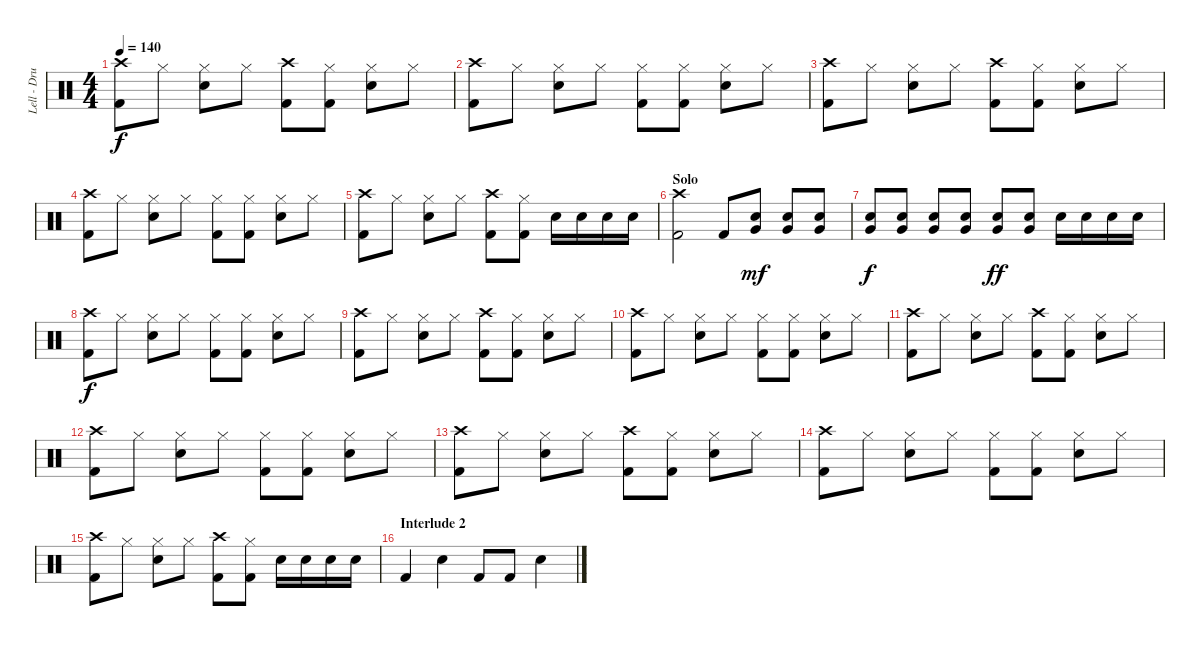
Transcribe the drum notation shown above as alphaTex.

\track ("Lell - Drums" "Lell - Dru") {instrument percussion}
\staff {score}
\articulation defaults
\ts (4 4)
\tempo 140
\clef neutral
\ks c
("Crash high (hit)" "Kick (hit) 2").8{dy f} "Hi-Hat (closed)".8 ("Hi-Hat (closed)" "Snare (hit) 2").8 "Hi-Hat (closed)".8 ("Crash high (hit)" "Kick (hit) 2").8 ("Hi-Hat (closed)" "Kick (hit) 2").8 ("Hi-Hat (closed)" "Snare (hit) 2").8 "Hi-Hat (closed)".8 |
("Crash high (hit)" "Kick (hit) 2").8 "Hi-Hat (closed)".8 ("Hi-Hat (closed)" "Snare (hit) 2").8 "Hi-Hat (closed)".8 ("Hi-Hat (closed)" "Kick (hit) 2").8 ("Hi-Hat (closed)" "Kick (hit) 2").8 ("Hi-Hat (closed)" "Snare (hit) 2").8 "Hi-Hat (closed)".8 |
("Crash high (hit)" "Kick (hit) 2").8 "Hi-Hat (closed)".8 ("Hi-Hat (closed)" "Snare (hit) 2").8 "Hi-Hat (closed)".8 ("Crash high (hit)" "Kick (hit) 2").8 ("Hi-Hat (closed)" "Kick (hit) 2").8 ("Hi-Hat (closed)" "Snare (hit) 2").8 "Hi-Hat (closed)".8 |
("Crash high (hit)" "Kick (hit) 2").8 "Hi-Hat (closed)".8 ("Hi-Hat (closed)" "Snare (hit) 2").8 "Hi-Hat (closed)".8 ("Hi-Hat (closed)" "Kick (hit) 2").8 ("Hi-Hat (closed)" "Kick (hit) 2").8 ("Hi-Hat (closed)" "Snare (hit) 2").8 "Hi-Hat (closed)".8 |
("Crash high (hit)" "Kick (hit) 2").8 "Hi-Hat (closed)".8 ("Hi-Hat (closed)" "Snare (hit) 2").8 "Hi-Hat (closed)".8 ("Crash high (hit)" "Kick (hit) 2").8 ("Hi-Hat (closed)" "Kick (hit) 2").8 "Snare (hit) 2".16 "Snare (hit) 2".16 "Snare (hit) 2".16 "Snare (hit) 2".16 |
\section ("" "Solo")
("Crash high (hit)" "Kick (hit) 2").2 "Kick (hit) 2".8 ("Very Low Tom (hit)" "Snare (hit) 2").8{dy mf} ("Very Low Tom (hit)" "Snare (hit) 2").8 ("Very Low Tom (hit)" "Snare (hit) 2").8 |
("Very Low Tom (hit)" "Snare (hit) 2").8{dy f} ("Very Low Tom (hit)" "Snare (hit) 2").8 ("Very Low Tom (hit)" "Snare (hit) 2").8 ("Very Low Tom (hit)" "Snare (hit) 2").8 ("Very Low Tom (hit)" "Snare (hit) 2").8{dy ff} ("Very Low Tom (hit)" "Snare (hit) 2").8 "Snare (hit) 2".16 "Snare (hit) 2".16 "Snare (hit) 2".16 "Snare (hit) 2".16 |
("Crash high (hit)" "Kick (hit) 2").8{dy f} "Hi-Hat (closed)".8 ("Hi-Hat (closed)" "Snare (hit) 2").8 "Hi-Hat (closed)".8 ("Hi-Hat (closed)" "Kick (hit) 2").8 ("Hi-Hat (closed)" "Kick (hit) 2").8 ("Hi-Hat (closed)" "Snare (hit) 2").8 "Hi-Hat (closed)".8 |
("Crash high (hit)" "Kick (hit) 2").8 "Hi-Hat (closed)".8 ("Hi-Hat (closed)" "Snare (hit) 2").8 "Hi-Hat (closed)".8 ("Crash high (hit)" "Kick (hit) 2").8 ("Hi-Hat (closed)" "Kick (hit) 2").8 ("Hi-Hat (closed)" "Snare (hit) 2").8 "Hi-Hat (closed)".8 |
("Crash high (hit)" "Kick (hit) 2").8 "Hi-Hat (closed)".8 ("Hi-Hat (closed)" "Snare (hit) 2").8 "Hi-Hat (closed)".8 ("Hi-Hat (closed)" "Kick (hit) 2").8 ("Hi-Hat (closed)" "Kick (hit) 2").8 ("Hi-Hat (closed)" "Snare (hit) 2").8 "Hi-Hat (closed)".8 |
("Crash high (hit)" "Kick (hit) 2").8 "Hi-Hat (closed)".8 ("Hi-Hat (closed)" "Snare (hit) 2").8 "Hi-Hat (closed)".8 ("Crash high (hit)" "Kick (hit) 2").8 ("Hi-Hat (closed)" "Kick (hit) 2").8 ("Hi-Hat (closed)" "Snare (hit) 2").8 "Hi-Hat (closed)".8 |
("Crash high (hit)" "Kick (hit) 2").8 "Hi-Hat (closed)".8 ("Hi-Hat (closed)" "Snare (hit) 2").8 "Hi-Hat (closed)".8 ("Hi-Hat (closed)" "Kick (hit) 2").8 ("Hi-Hat (closed)" "Kick (hit) 2").8 ("Hi-Hat (closed)" "Snare (hit) 2").8 "Hi-Hat (closed)".8 |
("Crash high (hit)" "Kick (hit) 2").8 "Hi-Hat (closed)".8 ("Hi-Hat (closed)" "Snare (hit) 2").8 "Hi-Hat (closed)".8 ("Crash high (hit)" "Kick (hit) 2").8 ("Hi-Hat (closed)" "Kick (hit) 2").8 ("Hi-Hat (closed)" "Snare (hit) 2").8 "Hi-Hat (closed)".8 |
("Crash high (hit)" "Kick (hit) 2").8 "Hi-Hat (closed)".8 ("Hi-Hat (closed)" "Snare (hit) 2").8 "Hi-Hat (closed)".8 ("Hi-Hat (closed)" "Kick (hit) 2").8 ("Hi-Hat (closed)" "Kick (hit) 2").8 ("Hi-Hat (closed)" "Snare (hit) 2").8 "Hi-Hat (closed)".8 |
("Crash high (hit)" "Kick (hit) 2").8 "Hi-Hat (closed)".8 ("Hi-Hat (closed)" "Snare (hit) 2").8 "Hi-Hat (closed)".8 ("Crash high (hit)" "Kick (hit) 2").8 ("Hi-Hat (closed)" "Kick (hit) 2").8 "Snare (hit) 2".16 "Snare (hit) 2".16 "Snare (hit) 2".16 "Snare (hit) 2".16 |
\section ("" "Interlude 2")
"Kick (hit) 2".4 "Snare (hit) 2".4 "Kick (hit) 2".8 "Kick (hit) 2".8 "Snare (hit) 2".4
